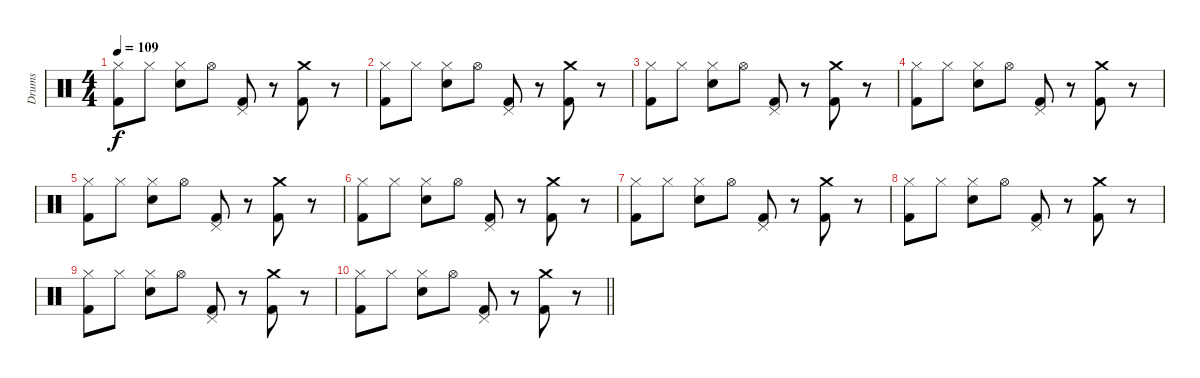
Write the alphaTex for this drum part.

\track ("Drums" "Drums") {instrument percussion}
\staff {score}
\articulation defaults
\ts (4 4)
\tempo 109
\clef neutral
\ks c
("Hi-Hat (closed)" "Kick (hit) 2").8{dy f} "Hi-Hat (closed)".8 ("Hi-Hat (closed)" "Snare (hit) 2").8 "Hi-Hat (open)".8 ("Pedal Hi-Hat (hit)" "Kick (hit) 2").8 r.8 ("Crash medium (hit)" "Kick (hit) 2").8 r.8 |
("Hi-Hat (closed)" "Kick (hit) 2").8 "Hi-Hat (closed)".8 ("Hi-Hat (closed)" "Snare (hit) 2").8 "Hi-Hat (open)".8 ("Pedal Hi-Hat (hit)" "Kick (hit) 2").8 r.8 ("Crash medium (hit)" "Kick (hit) 2").8 r.8 |
("Hi-Hat (closed)" "Kick (hit) 2").8 "Hi-Hat (closed)".8 ("Hi-Hat (closed)" "Snare (hit) 2").8 "Hi-Hat (open)".8 ("Pedal Hi-Hat (hit)" "Kick (hit) 2").8 r.8 ("Crash medium (hit)" "Kick (hit) 2").8 r.8 |
("Hi-Hat (closed)" "Kick (hit) 2").8 "Hi-Hat (closed)".8 ("Hi-Hat (closed)" "Snare (hit) 2").8 "Hi-Hat (open)".8 ("Pedal Hi-Hat (hit)" "Kick (hit) 2").8 r.8 ("Crash medium (hit)" "Kick (hit) 2").8 r.8 |
("Hi-Hat (closed)" "Kick (hit) 2").8 "Hi-Hat (closed)".8 ("Hi-Hat (closed)" "Snare (hit) 2").8 "Hi-Hat (open)".8 ("Pedal Hi-Hat (hit)" "Kick (hit) 2").8 r.8 ("Crash medium (hit)" "Kick (hit) 2").8 r.8 |
("Hi-Hat (closed)" "Kick (hit) 2").8 "Hi-Hat (closed)".8 ("Hi-Hat (closed)" "Snare (hit) 2").8 "Hi-Hat (open)".8 ("Pedal Hi-Hat (hit)" "Kick (hit) 2").8 r.8 ("Crash medium (hit)" "Kick (hit) 2").8 r.8 |
("Hi-Hat (closed)" "Kick (hit) 2").8 "Hi-Hat (closed)".8 ("Hi-Hat (closed)" "Snare (hit) 2").8 "Hi-Hat (open)".8 ("Pedal Hi-Hat (hit)" "Kick (hit) 2").8 r.8 ("Crash medium (hit)" "Kick (hit) 2").8 r.8 |
("Hi-Hat (closed)" "Kick (hit) 2").8 "Hi-Hat (closed)".8 ("Hi-Hat (closed)" "Snare (hit) 2").8 "Hi-Hat (open)".8 ("Pedal Hi-Hat (hit)" "Kick (hit) 2").8 r.8 ("Crash medium (hit)" "Kick (hit) 2").8 r.8 |
("Hi-Hat (closed)" "Kick (hit) 2").8 "Hi-Hat (closed)".8 ("Hi-Hat (closed)" "Snare (hit) 2").8 "Hi-Hat (open)".8 ("Pedal Hi-Hat (hit)" "Kick (hit) 2").8 r.8 ("Crash medium (hit)" "Kick (hit) 2").8 r.8 |
\barLineRight lightlight
("Hi-Hat (closed)" "Kick (hit) 2").8 "Hi-Hat (closed)".8 ("Hi-Hat (closed)" "Snare (hit) 2").8 "Hi-Hat (open)".8 ("Pedal Hi-Hat (hit)" "Kick (hit) 2").8 r.8 ("Crash medium (hit)" "Kick (hit) 2").8 r.8
